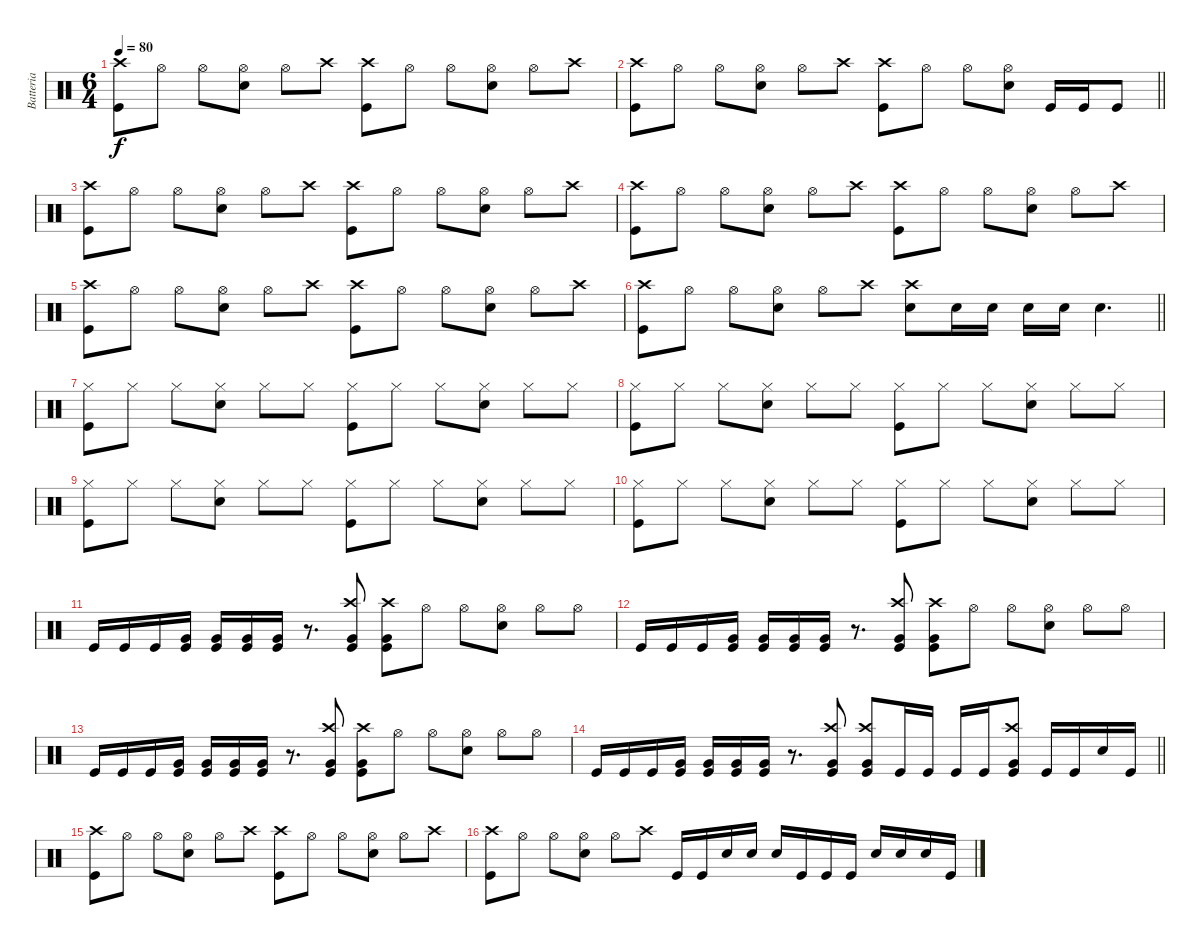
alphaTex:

\track ("Batteria" "Batteria") {instrument percussion}
\staff {score}
\articulation defaults
\ts (6 4)
\tempo 80
\clef neutral
\ks c
("Kick (hit)" "Crash high (hit)").8{dy f} "Hi-Hat (open)".8 "Hi-Hat (open)".8 ("Snare (hit) 2" "Hi-Hat (open)").8 "Hi-Hat (open)".8 "Crash high (hit)".8 ("Kick (hit)" "Crash high (hit)").8 "Hi-Hat (open)".8 "Hi-Hat (open)".8 ("Snare (hit) 2" "Hi-Hat (open)").8 "Hi-Hat (open)".8 "Crash high (hit)".8 |
\barLineRight lightlight
("Kick (hit)" "Crash high (hit)").8 "Hi-Hat (open)".8 "Hi-Hat (open)".8 ("Snare (hit) 2" "Hi-Hat (open)").8 "Hi-Hat (open)".8 "Crash high (hit)".8 ("Kick (hit)" "Crash high (hit)").8 "Hi-Hat (open)".8 "Hi-Hat (open)".8 ("Snare (hit) 2" "Hi-Hat (open)").8 "Kick (hit)".16 "Kick (hit)".16 "Kick (hit)".8 |
("Kick (hit)" "Crash high (hit)").8 "Hi-Hat (open)".8 "Hi-Hat (open)".8 ("Snare (hit) 2" "Hi-Hat (open)").8 "Hi-Hat (open)".8 "Crash high (hit)".8 ("Kick (hit)" "Crash high (hit)").8 "Hi-Hat (open)".8 "Hi-Hat (open)".8 ("Snare (hit) 2" "Hi-Hat (open)").8 "Hi-Hat (open)".8 "Crash high (hit)".8 |
("Kick (hit)" "Crash high (hit)").8 "Hi-Hat (open)".8 "Hi-Hat (open)".8 ("Snare (hit) 2" "Hi-Hat (open)").8 "Hi-Hat (open)".8 "Crash high (hit)".8 ("Kick (hit)" "Crash high (hit)").8 "Hi-Hat (open)".8 "Hi-Hat (open)".8 ("Snare (hit) 2" "Hi-Hat (open)").8 "Hi-Hat (open)".8 "Crash high (hit)".8 |
("Kick (hit)" "Crash high (hit)").8 "Hi-Hat (open)".8 "Hi-Hat (open)".8 ("Snare (hit) 2" "Hi-Hat (open)").8 "Hi-Hat (open)".8 "Crash high (hit)".8 ("Kick (hit)" "Crash high (hit)").8 "Hi-Hat (open)".8 "Hi-Hat (open)".8 ("Snare (hit) 2" "Hi-Hat (open)").8 "Hi-Hat (open)".8 "Crash high (hit)".8 |
\barLineRight lightlight
("Kick (hit)" "Crash high (hit)").8 "Hi-Hat (open)".8 "Hi-Hat (open)".8 ("Snare (hit) 2" "Hi-Hat (open)").8 "Hi-Hat (open)".8 "Crash high (hit)".8 ("Snare (hit) 2" "Crash high (hit)").8 "Snare (hit) 2".16 "Snare (hit) 2".16 "Snare (hit) 2".16 "Snare (hit) 2".16 "Snare (hit) 2".4{d} |
("Kick (hit)" "Hi-Hat (closed)").8 "Hi-Hat (closed)".8 "Hi-Hat (closed)".8 ("Snare (hit) 2" "Hi-Hat (closed)").8 "Hi-Hat (closed)".8 "Hi-Hat (closed)".8 ("Kick (hit)" "Hi-Hat (closed)").8 "Hi-Hat (closed)".8 "Hi-Hat (closed)".8 ("Snare (hit) 2" "Hi-Hat (closed)").8 "Hi-Hat (closed)".8 "Hi-Hat (closed)".8 |
("Kick (hit)" "Hi-Hat (closed)").8 "Hi-Hat (closed)".8 "Hi-Hat (closed)".8 ("Snare (hit) 2" "Hi-Hat (closed)").8 "Hi-Hat (closed)".8 "Hi-Hat (closed)".8 ("Kick (hit)" "Hi-Hat (closed)").8 "Hi-Hat (closed)".8 "Hi-Hat (closed)".8 ("Snare (hit) 2" "Hi-Hat (closed)").8 "Hi-Hat (closed)".8 "Hi-Hat (closed)".8 |
("Kick (hit)" "Hi-Hat (closed)").8 "Hi-Hat (closed)".8 "Hi-Hat (closed)".8 ("Snare (hit) 2" "Hi-Hat (closed)").8 "Hi-Hat (closed)".8 "Hi-Hat (closed)".8 ("Kick (hit)" "Hi-Hat (closed)").8 "Hi-Hat (closed)".8 "Hi-Hat (closed)".8 ("Snare (hit) 2" "Hi-Hat (closed)").8 "Hi-Hat (closed)".8 "Hi-Hat (closed)".8 |
("Kick (hit)" "Hi-Hat (closed)").8 "Hi-Hat (closed)".8 "Hi-Hat (closed)".8 ("Snare (hit) 2" "Hi-Hat (closed)").8 "Hi-Hat (closed)".8 "Hi-Hat (closed)".8 ("Kick (hit)" "Hi-Hat (closed)").8 "Hi-Hat (closed)".8 "Hi-Hat (closed)".8 ("Snare (hit) 2" "Hi-Hat (closed)").8 "Hi-Hat (closed)".8 "Hi-Hat (closed)".8 |
"Kick (hit)".16 "Kick (hit)".16 "Kick (hit)".16 ("Very Low Tom (hit)" "Kick (hit)").16 ("Very Low Tom (hit)" "Kick (hit)").16 ("Very Low Tom (hit)" "Kick (hit)").16 ("Very Low Tom (hit)" "Kick (hit)").16 r.8{d} ("Kick (hit)" "Crash high (hit)" "Very Low Tom (hit)").8 ("Kick (hit)" "Crash high (hit)" "Very Low Tom (hit)").8 "Hi-Hat (open)".8 "Hi-Hat (open)".8 ("Snare (hit) 2" "Hi-Hat (open)").8 "Hi-Hat (open)".8 "Hi-Hat (open)".8 |
"Kick (hit)".16 "Kick (hit)".16 "Kick (hit)".16 ("Very Low Tom (hit)" "Kick (hit)").16 ("Very Low Tom (hit)" "Kick (hit)").16 ("Very Low Tom (hit)" "Kick (hit)").16 ("Very Low Tom (hit)" "Kick (hit)").16 r.8{d} ("Kick (hit)" "Crash high (hit)" "Very Low Tom (hit)").8 ("Kick (hit)" "Crash high (hit)" "Very Low Tom (hit)").8 "Hi-Hat (open)".8 "Hi-Hat (open)".8 ("Snare (hit) 2" "Hi-Hat (open)").8 "Hi-Hat (open)".8 "Hi-Hat (open)".8 |
"Kick (hit)".16 "Kick (hit)".16 "Kick (hit)".16 ("Very Low Tom (hit)" "Kick (hit)").16 ("Very Low Tom (hit)" "Kick (hit)").16 ("Very Low Tom (hit)" "Kick (hit)").16 ("Very Low Tom (hit)" "Kick (hit)").16 r.8{d} ("Kick (hit)" "Crash high (hit)" "Very Low Tom (hit)").8 ("Kick (hit)" "Crash high (hit)" "Very Low Tom (hit)").8 "Hi-Hat (open)".8 "Hi-Hat (open)".8 ("Snare (hit) 2" "Hi-Hat (open)").8 "Hi-Hat (open)".8 "Hi-Hat (open)".8 |
\barLineRight lightlight "Kick (hit)".16 "Kick (hit)".16 "Kick (hit)".16
("Very Low Tom (hit)" "Kick (hit)").16 ("Very Low Tom (hit)" "Kick (hit)").16 ("Very Low Tom (hit)" "Kick (hit)").16 ("Very Low Tom (hit)" "Kick (hit)").16 r.8{d} ("Kick (hit)" "Crash high (hit)" "Very Low Tom (hit)").8 ("Kick (hit)" "Crash high (hit)" "Very Low Tom (hit)").8 "Kick (hit)".16 "Kick (hit)".16 "Kick (hit)".16 "Kick (hit)".16 ("Kick (hit)" "Crash high (hit)" "Very Low Tom (hit)").8 "Kick (hit)".16 "Kick (hit)".16 "Snare (hit) 2".16 "Kick (hit)".16 |
("Kick (hit)" "Crash high (hit)").8 "Hi-Hat (open)".8 "Hi-Hat (open)".8 ("Snare (hit) 2" "Hi-Hat (open)").8 "Hi-Hat (open)".8 "Crash high (hit)".8 ("Kick (hit)" "Crash high (hit)").8 "Hi-Hat (open)".8 "Hi-Hat (open)".8 ("Snare (hit) 2" "Hi-Hat (open)").8 "Hi-Hat (open)".8 "Crash high (hit)".8 |
("Kick (hit)" "Crash high (hit)").8 "Hi-Hat (open)".8 "Hi-Hat (open)".8 ("Snare (hit) 2" "Hi-Hat (open)").8 "Hi-Hat (open)".8 "Crash high (hit)".8 "Kick (hit)".16 "Kick (hit)".16 "Snare (hit) 2".16 "Snare (hit) 2".16 "Snare (hit) 2".16 "Kick (hit)".16 "Kick (hit)".16 "Kick (hit)".16 "Snare (hit) 2".16 "Snare (hit) 2".16 "Snare (hit) 2".16 "Kick (hit)".16
